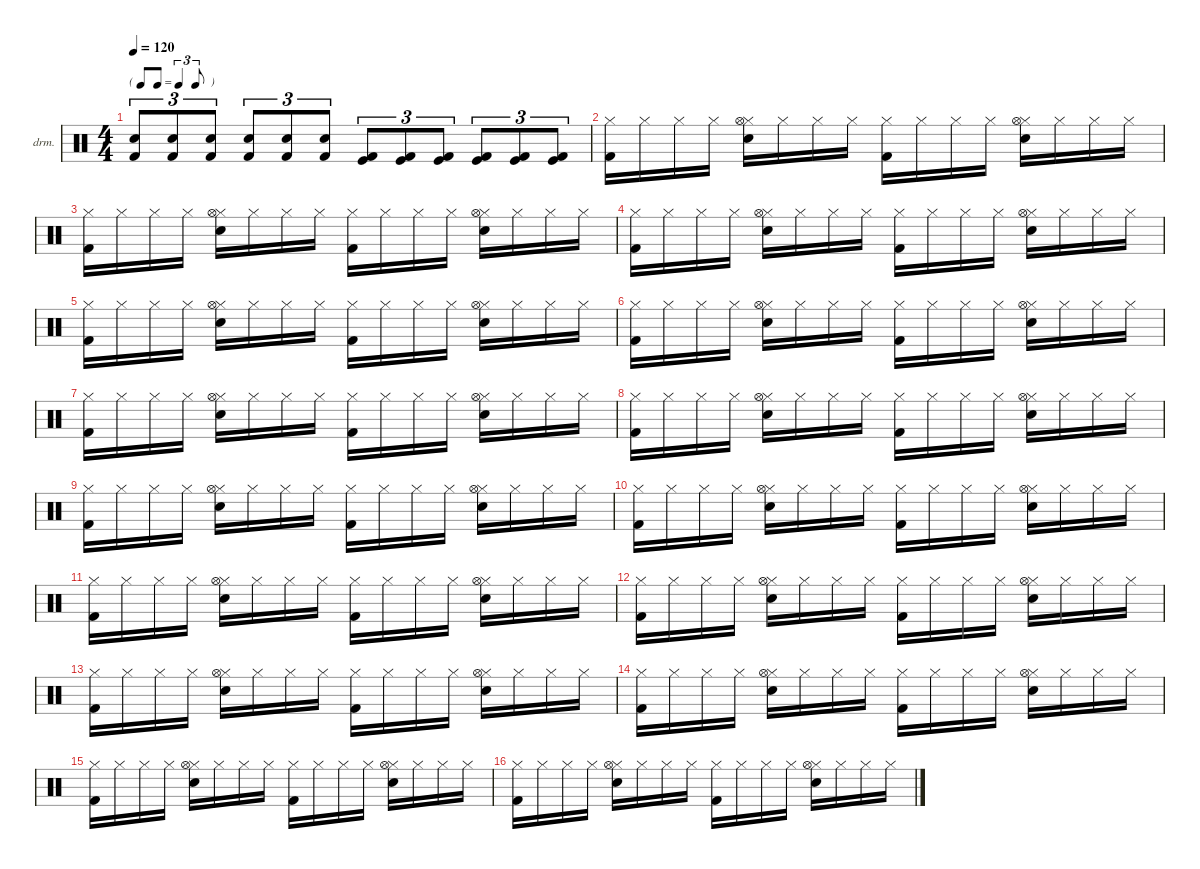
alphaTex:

\defaultSystemsLayout 4
\hideDynamics
\bracketExtendMode nobrackets
\firstSystemTrackNameOrientation horizontal
\otherSystemsTrackNameOrientation horizontal
\track ("Percussions" "drm.") {instrument percussion}
\staff {score}
\articulation defaults
\ts (4 4)
\tf triplet8th
\tempo 120
\clef neutral
\ks c
("Kick (hit) 2" "Snare (hit) 2").8{tu (3 2) dy f beam Up} ("Kick (hit) 2" "Snare (hit) 2").8{tu (3 2) beam Up} ("Kick (hit) 2" "Snare (hit) 2").8{tu (3 2) beam Up} ("Kick (hit) 2" "Snare (hit) 2").8{tu (3 2) beam Up} ("Kick (hit) 2" "Snare (hit) 2").8{tu (3 2) beam Up} ("Kick (hit) 2" "Snare (hit) 2").8{tu (3 2) beam Up} ("Kick (hit)" "Kick (hit) 2").8{tu (3 2) beam Up} ("Kick (hit)" "Kick (hit) 2").8{tu (3 2) beam Up} ("Kick (hit)" "Kick (hit) 2").8{tu (3 2) beam Up} ("Kick (hit)" "Kick (hit) 2").8{tu (3 2) beam Up} ("Kick (hit)" "Kick (hit) 2").8{tu (3 2) beam Up} ("Kick (hit)" "Kick (hit) 2").8{tu (3 2) beam Up} |
("Hi-Hat (closed)" "Kick (hit) 2").16{beam Down} "Hi-Hat (closed)".16{beam Down} "Hi-Hat (closed)".16{beam Down} "Hi-Hat (closed)".16{beam Down} ("Snare (hit) 2" "Hi-Hat (closed)" "Hi-Hat (open)").16{beam Down} "Hi-Hat (closed)".16{beam Down} "Hi-Hat (closed)".16{beam Down} "Hi-Hat (closed)".16{beam Down} ("Hi-Hat (closed)" "Kick (hit) 2").16{beam Down} "Hi-Hat (closed)".16{beam Down} "Hi-Hat (closed)".16{beam Down} "Hi-Hat (closed)".16{beam Down} ("Snare (hit) 2" "Hi-Hat (closed)" "Hi-Hat (open)").16{beam Down} "Hi-Hat (closed)".16{beam Down} "Hi-Hat (closed)".16{beam Down} "Hi-Hat (closed)".16{beam Down} |
("Hi-Hat (closed)" "Kick (hit) 2").16{beam Down} "Hi-Hat (closed)".16{beam Down} "Hi-Hat (closed)".16{beam Down} "Hi-Hat (closed)".16{beam Down} ("Snare (hit) 2" "Hi-Hat (closed)" "Hi-Hat (open)").16{beam Down} "Hi-Hat (closed)".16{beam Down} "Hi-Hat (closed)".16{beam Down} "Hi-Hat (closed)".16{beam Down} ("Hi-Hat (closed)" "Kick (hit) 2").16{beam Down} "Hi-Hat (closed)".16{beam Down} "Hi-Hat (closed)".16{beam Down} "Hi-Hat (closed)".16{beam Down} ("Snare (hit) 2" "Hi-Hat (closed)" "Hi-Hat (open)").16{beam Down} "Hi-Hat (closed)".16{beam Down} "Hi-Hat (closed)".16{beam Down} "Hi-Hat (closed)".16{beam Down} |
("Hi-Hat (closed)" "Kick (hit) 2").16{beam Down} "Hi-Hat (closed)".16{beam Down} "Hi-Hat (closed)".16{beam Down} "Hi-Hat (closed)".16{beam Down} ("Snare (hit) 2" "Hi-Hat (closed)" "Hi-Hat (open)").16{beam Down} "Hi-Hat (closed)".16{beam Down} "Hi-Hat (closed)".16{beam Down} "Hi-Hat (closed)".16{beam Down} ("Hi-Hat (closed)" "Kick (hit) 2").16{beam Down} "Hi-Hat (closed)".16{beam Down} "Hi-Hat (closed)".16{beam Down} "Hi-Hat (closed)".16{beam Down} ("Snare (hit) 2" "Hi-Hat (closed)" "Hi-Hat (open)").16{beam Down} "Hi-Hat (closed)".16{beam Down} "Hi-Hat (closed)".16{beam Down} "Hi-Hat (closed)".16{beam Down} |
("Hi-Hat (closed)" "Kick (hit) 2").16{beam Down} "Hi-Hat (closed)".16{beam Down} "Hi-Hat (closed)".16{beam Down} "Hi-Hat (closed)".16{beam Down} ("Snare (hit) 2" "Hi-Hat (closed)" "Hi-Hat (open)").16{beam Down} "Hi-Hat (closed)".16{beam Down} "Hi-Hat (closed)".16{beam Down} "Hi-Hat (closed)".16{beam Down} ("Hi-Hat (closed)" "Kick (hit) 2").16{beam Down} "Hi-Hat (closed)".16{beam Down} "Hi-Hat (closed)".16{beam Down} "Hi-Hat (closed)".16{beam Down} ("Snare (hit) 2" "Hi-Hat (closed)" "Hi-Hat (open)").16{beam Down} "Hi-Hat (closed)".16{beam Down} "Hi-Hat (closed)".16{beam Down} "Hi-Hat (closed)".16{beam Down} |
("Hi-Hat (closed)" "Kick (hit) 2").16{beam Down} "Hi-Hat (closed)".16{beam Down} "Hi-Hat (closed)".16{beam Down} "Hi-Hat (closed)".16{beam Down} ("Snare (hit) 2" "Hi-Hat (closed)" "Hi-Hat (open)").16{beam Down} "Hi-Hat (closed)".16{beam Down} "Hi-Hat (closed)".16{beam Down} "Hi-Hat (closed)".16{beam Down} ("Hi-Hat (closed)" "Kick (hit) 2").16{beam Down} "Hi-Hat (closed)".16{beam Down} "Hi-Hat (closed)".16{beam Down} "Hi-Hat (closed)".16{beam Down} ("Snare (hit) 2" "Hi-Hat (closed)" "Hi-Hat (open)").16{beam Down} "Hi-Hat (closed)".16{beam Down} "Hi-Hat (closed)".16{beam Down} "Hi-Hat (closed)".16{beam Down} |
("Hi-Hat (closed)" "Kick (hit) 2").16{beam Down} "Hi-Hat (closed)".16{beam Down} "Hi-Hat (closed)".16{beam Down} "Hi-Hat (closed)".16{beam Down} ("Snare (hit) 2" "Hi-Hat (closed)" "Hi-Hat (open)").16{beam Down} "Hi-Hat (closed)".16{beam Down} "Hi-Hat (closed)".16{beam Down} "Hi-Hat (closed)".16{beam Down} ("Hi-Hat (closed)" "Kick (hit) 2").16{beam Down} "Hi-Hat (closed)".16{beam Down} "Hi-Hat (closed)".16{beam Down} "Hi-Hat (closed)".16{beam Down} ("Snare (hit) 2" "Hi-Hat (closed)" "Hi-Hat (open)").16{beam Down} "Hi-Hat (closed)".16{beam Down} "Hi-Hat (closed)".16{beam Down} "Hi-Hat (closed)".16{beam Down} |
("Hi-Hat (closed)" "Kick (hit) 2").16{beam Down} "Hi-Hat (closed)".16{beam Down} "Hi-Hat (closed)".16{beam Down} "Hi-Hat (closed)".16{beam Down} ("Snare (hit) 2" "Hi-Hat (closed)" "Hi-Hat (open)").16{beam Down} "Hi-Hat (closed)".16{beam Down} "Hi-Hat (closed)".16{beam Down} "Hi-Hat (closed)".16{beam Down} ("Hi-Hat (closed)" "Kick (hit) 2").16{beam Down} "Hi-Hat (closed)".16{beam Down} "Hi-Hat (closed)".16{beam Down} "Hi-Hat (closed)".16{beam Down} ("Snare (hit) 2" "Hi-Hat (closed)" "Hi-Hat (open)").16{beam Down} "Hi-Hat (closed)".16{beam Down} "Hi-Hat (closed)".16{beam Down} "Hi-Hat (closed)".16{beam Down} |
("Hi-Hat (closed)" "Kick (hit) 2").16{beam Down} "Hi-Hat (closed)".16{beam Down} "Hi-Hat (closed)".16{beam Down} "Hi-Hat (closed)".16{beam Down} ("Snare (hit) 2" "Hi-Hat (closed)" "Hi-Hat (open)").16{beam Down} "Hi-Hat (closed)".16{beam Down} "Hi-Hat (closed)".16{beam Down} "Hi-Hat (closed)".16{beam Down} ("Hi-Hat (closed)" "Kick (hit) 2").16{beam Down} "Hi-Hat (closed)".16{beam Down} "Hi-Hat (closed)".16{beam Down} "Hi-Hat (closed)".16{beam Down} ("Snare (hit) 2" "Hi-Hat (closed)" "Hi-Hat (open)").16{beam Down} "Hi-Hat (closed)".16{beam Down} "Hi-Hat (closed)".16{beam Down} "Hi-Hat (closed)".16{beam Down} |
("Hi-Hat (closed)" "Kick (hit) 2").16{beam Down} "Hi-Hat (closed)".16{beam Down} "Hi-Hat (closed)".16{beam Down} "Hi-Hat (closed)".16{beam Down} ("Snare (hit) 2" "Hi-Hat (closed)" "Hi-Hat (open)").16{beam Down} "Hi-Hat (closed)".16{beam Down} "Hi-Hat (closed)".16{beam Down} "Hi-Hat (closed)".16{beam Down} ("Hi-Hat (closed)" "Kick (hit) 2").16{beam Down} "Hi-Hat (closed)".16{beam Down} "Hi-Hat (closed)".16{beam Down} "Hi-Hat (closed)".16{beam Down} ("Snare (hit) 2" "Hi-Hat (closed)" "Hi-Hat (open)").16{beam Down} "Hi-Hat (closed)".16{beam Down} "Hi-Hat (closed)".16{beam Down} "Hi-Hat (closed)".16{beam Down} |
("Hi-Hat (closed)" "Kick (hit) 2").16{beam Down} "Hi-Hat (closed)".16{beam Down} "Hi-Hat (closed)".16{beam Down} "Hi-Hat (closed)".16{beam Down} ("Snare (hit) 2" "Hi-Hat (closed)" "Hi-Hat (open)").16{beam Down} "Hi-Hat (closed)".16{beam Down} "Hi-Hat (closed)".16{beam Down} "Hi-Hat (closed)".16{beam Down} ("Hi-Hat (closed)" "Kick (hit) 2").16{beam Down} "Hi-Hat (closed)".16{beam Down} "Hi-Hat (closed)".16{beam Down} "Hi-Hat (closed)".16{beam Down} ("Snare (hit) 2" "Hi-Hat (closed)" "Hi-Hat (open)").16{beam Down} "Hi-Hat (closed)".16{beam Down} "Hi-Hat (closed)".16{beam Down} "Hi-Hat (closed)".16{beam Down} |
("Hi-Hat (closed)" "Kick (hit) 2").16{beam Down} "Hi-Hat (closed)".16{beam Down} "Hi-Hat (closed)".16{beam Down} "Hi-Hat (closed)".16{beam Down} ("Snare (hit) 2" "Hi-Hat (closed)" "Hi-Hat (open)").16{beam Down} "Hi-Hat (closed)".16{beam Down} "Hi-Hat (closed)".16{beam Down} "Hi-Hat (closed)".16{beam Down} ("Hi-Hat (closed)" "Kick (hit) 2").16{beam Down} "Hi-Hat (closed)".16{beam Down} "Hi-Hat (closed)".16{beam Down} "Hi-Hat (closed)".16{beam Down} ("Snare (hit) 2" "Hi-Hat (closed)" "Hi-Hat (open)").16{beam Down} "Hi-Hat (closed)".16{beam Down} "Hi-Hat (closed)".16{beam Down} "Hi-Hat (closed)".16{beam Down} |
("Hi-Hat (closed)" "Kick (hit) 2").16{beam Down} "Hi-Hat (closed)".16{beam Down} "Hi-Hat (closed)".16{beam Down} "Hi-Hat (closed)".16{beam Down} ("Snare (hit) 2" "Hi-Hat (closed)" "Hi-Hat (open)").16{beam Down} "Hi-Hat (closed)".16{beam Down} "Hi-Hat (closed)".16{beam Down} "Hi-Hat (closed)".16{beam Down} ("Hi-Hat (closed)" "Kick (hit) 2").16{beam Down} "Hi-Hat (closed)".16{beam Down} "Hi-Hat (closed)".16{beam Down} "Hi-Hat (closed)".16{beam Down} ("Snare (hit) 2" "Hi-Hat (closed)" "Hi-Hat (open)").16{beam Down} "Hi-Hat (closed)".16{beam Down} "Hi-Hat (closed)".16{beam Down} "Hi-Hat (closed)".16{beam Down} |
("Hi-Hat (closed)" "Kick (hit) 2").16{beam Down} "Hi-Hat (closed)".16{beam Down} "Hi-Hat (closed)".16{beam Down} "Hi-Hat (closed)".16{beam Down} ("Snare (hit) 2" "Hi-Hat (closed)" "Hi-Hat (open)").16{beam Down} "Hi-Hat (closed)".16{beam Down} "Hi-Hat (closed)".16{beam Down} "Hi-Hat (closed)".16{beam Down} ("Hi-Hat (closed)" "Kick (hit) 2").16{beam Down} "Hi-Hat (closed)".16{beam Down} "Hi-Hat (closed)".16{beam Down} "Hi-Hat (closed)".16{beam Down} ("Snare (hit) 2" "Hi-Hat (closed)" "Hi-Hat (open)").16{beam Down} "Hi-Hat (closed)".16{beam Down} "Hi-Hat (closed)".16{beam Down} "Hi-Hat (closed)".16{beam Down} |
("Hi-Hat (closed)" "Kick (hit) 2").16{beam Down} "Hi-Hat (closed)".16{beam Down} "Hi-Hat (closed)".16{beam Down} "Hi-Hat (closed)".16{beam Down} ("Snare (hit) 2" "Hi-Hat (closed)" "Hi-Hat (open)").16{beam Down} "Hi-Hat (closed)".16{beam Down} "Hi-Hat (closed)".16{beam Down} "Hi-Hat (closed)".16{beam Down} ("Hi-Hat (closed)" "Kick (hit) 2").16{beam Down} "Hi-Hat (closed)".16{beam Down} "Hi-Hat (closed)".16{beam Down} "Hi-Hat (closed)".16{beam Down} ("Snare (hit) 2" "Hi-Hat (closed)" "Hi-Hat (open)").16{beam Down} "Hi-Hat (closed)".16{beam Down} "Hi-Hat (closed)".16{beam Down} "Hi-Hat (closed)".16{beam Down} |
("Hi-Hat (closed)" "Kick (hit) 2").16{beam Down} "Hi-Hat (closed)".16{beam Down} "Hi-Hat (closed)".16{beam Down} "Hi-Hat (closed)".16{beam Down} ("Snare (hit) 2" "Hi-Hat (closed)" "Hi-Hat (open)").16{beam Down} "Hi-Hat (closed)".16{beam Down} "Hi-Hat (closed)".16{beam Down} "Hi-Hat (closed)".16{beam Down} ("Hi-Hat (closed)" "Kick (hit) 2").16{beam Down} "Hi-Hat (closed)".16{beam Down} "Hi-Hat (closed)".16{beam Down} "Hi-Hat (closed)".16{beam Down} ("Snare (hit) 2" "Hi-Hat (closed)" "Hi-Hat (open)").16{beam Down} "Hi-Hat (closed)".16{beam Down} "Hi-Hat (closed)".16{beam Down} "Hi-Hat (closed)".16{beam Down}
